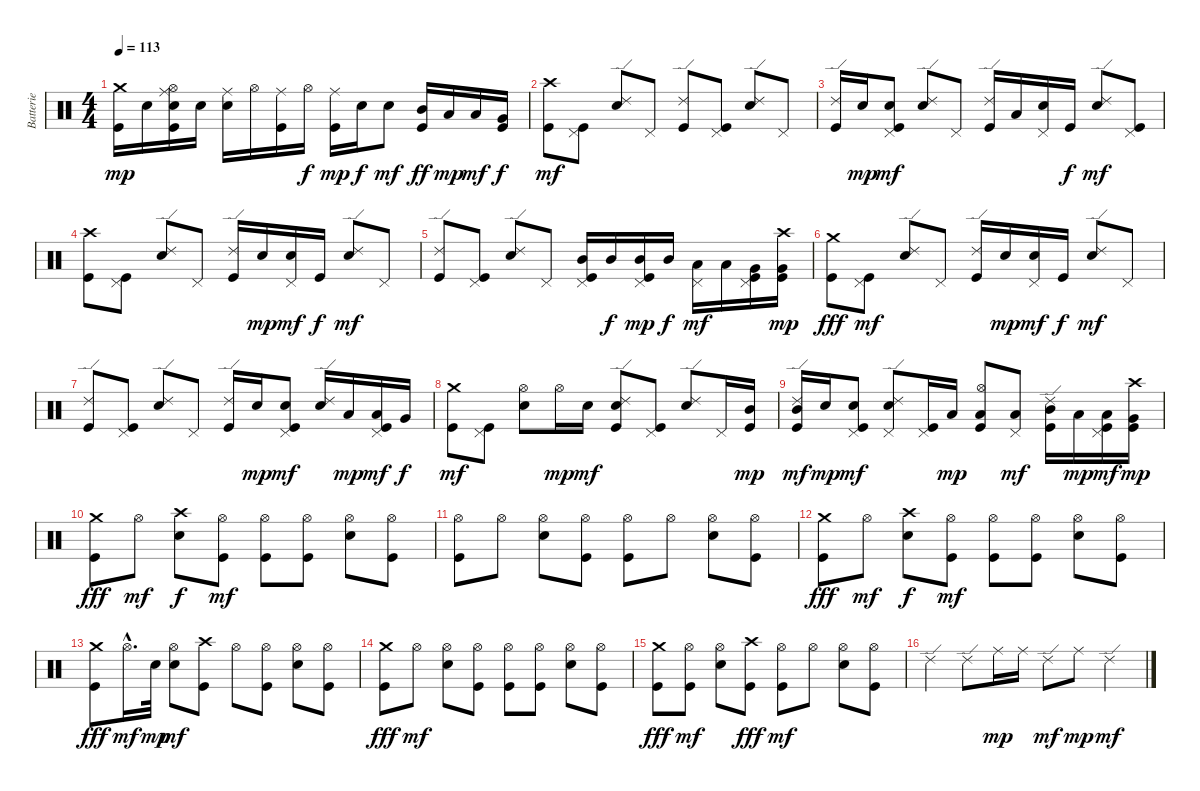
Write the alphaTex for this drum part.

\track ("Batterie" "Batterie") {instrument percussion}
\staff {score}
\articulation defaults
\ts (4 4)
\tempo 113
\clef neutral
\ks c
("Kick (hit)" "Crash medium (hit)").16{dy mp} "Electric Snare (hit)".16 ("Kick (hit)" "Electric Snare (hit)" "Hi-Hat (open)" "Ride (middle)").16 "Electric Snare (hit)".16 ("Electric Snare (hit)" "Ride (middle)").16 "Hi-Hat (open)".16 ("Kick (hit)" "Ride (middle)").16 "Hi-Hat (open)".16{dy f} ("Kick (hit)" "Ride (middle)").16{dy mp} "Electric Snare (hit)".16{dy f} "Electric Snare (hit)".8{dy mf} ("Kick (hit)" "Mid Tom (hit)").16{dy ff} "Low Tom (hit)".16{dy mp} "Low Tom (hit)".16{dy mf} ("Kick (hit)" "Very Low Tom (hit)").16{dy f} |
("Kick (hit)" "Crash high (hit)").8{dy mf} ("Kick (hit)" "Pedal Hi-Hat (hit)").8 ("Electric Snare (hit)" "Ride (edge) 2").8 "Pedal Hi-Hat (hit)".8 ("Kick (hit)" "Ride (edge) 2").8 ("Kick (hit)" "Pedal Hi-Hat (hit)").8 ("Electric Snare (hit)" "Ride (edge) 2").8 "Pedal Hi-Hat (hit)".8 |
("Kick (hit)" "Ride (edge) 2").16 "Electric Snare (hit)".16{dy mp} ("Kick (hit)" "Electric Snare (hit)" "Pedal Hi-Hat (hit)").8{dy mf} ("Electric Snare (hit)" "Ride (edge) 2").8 "Pedal Hi-Hat (hit)".8 ("Kick (hit)" "Ride (edge) 2").16 "Low Tom (hit)".16 ("Electric Snare (hit)" "Pedal Hi-Hat (hit)").16 "Kick (hit)".16{dy f} ("Electric Snare (hit)" "Ride (edge) 2").8{dy mf} ("Kick (hit)" "Pedal Hi-Hat (hit)").8 |
("Kick (hit)" "Crash high (hit)").8 ("Kick (hit)" "Pedal Hi-Hat (hit)").8 ("Electric Snare (hit)" "Ride (edge) 2").8 "Pedal Hi-Hat (hit)".8 ("Kick (hit)" "Ride (edge) 2").16 "Electric Snare (hit)".16{dy mp} ("Electric Snare (hit)" "Pedal Hi-Hat (hit)").16{dy mf} "Kick (hit)".16{dy f} ("Electric Snare (hit)" "Ride (edge) 2").8{dy mf} "Pedal Hi-Hat (hit)".8 |
("Kick (hit)" "Ride (edge) 2").8 ("Kick (hit)" "Pedal Hi-Hat (hit)").8 ("Electric Snare (hit)" "Ride (edge) 2").8 "Pedal Hi-Hat (hit)".8 ("Kick (hit)" "Pedal Hi-Hat (hit)" "Mid Tom (hit)").16 "Mid Tom (hit)".16{dy f} ("Kick (hit)" "Pedal Hi-Hat (hit)" "Mid Tom (hit)").16{dy mp} "Mid Tom (hit)".16{dy f} ("Pedal Hi-Hat (hit)" "Low Tom (hit)").16{dy mf} "Low Tom (hit)".16 ("Kick (hit)" "Pedal Hi-Hat (hit)" "Very Low Tom (hit)").16 ("Kick (hit)" "Crash high (hit)" "Very Low Tom (hit)").16{dy mp} |
("Kick (hit)" "Crash medium (hit)").8{dy fff} ("Kick (hit)" "Pedal Hi-Hat (hit)").8{dy mf} ("Electric Snare (hit)" "Ride (edge) 2").8 "Pedal Hi-Hat (hit)".8 ("Kick (hit)" "Ride (edge) 2").16 "Electric Snare (hit)".16{dy mp} ("Electric Snare (hit)" "Pedal Hi-Hat (hit)").16{dy mf} "Kick (hit)".16{dy f} ("Electric Snare (hit)" "Ride (edge) 2").8{dy mf} "Pedal Hi-Hat (hit)".8 |
("Kick (hit)" "Ride (edge) 2").8 ("Kick (hit)" "Pedal Hi-Hat (hit)").8 ("Electric Snare (hit)" "Ride (edge) 2").8 "Pedal Hi-Hat (hit)".8 ("Kick (hit)" "Ride (edge) 2").16 "Electric Snare (hit)".16{dy mp} ("Kick (hit)" "Electric Snare (hit)" "Pedal Hi-Hat (hit)").8{dy mf} ("Electric Snare (hit)" "Ride (edge) 2").16 "Low Tom (hit)".16{dy mp} ("Kick (hit)" "Pedal Hi-Hat (hit)" "Low Tom (hit)").16{dy mf} "Very Low Tom (hit)".16{dy f} |
("Kick (hit)" "Crash medium (hit)").8{dy mf} ("Kick (hit)" "Pedal Hi-Hat (hit)").8 ("Electric Snare (hit)" "Hi-Hat (open)").8 "Hi-Hat (open)".16{dy mp} "Electric Snare (hit)".16{dy mf} ("Kick (hit)" "Electric Snare (hit)" "Ride (edge) 2").8 ("Kick (hit)" "Pedal Hi-Hat (hit)").8 ("Electric Snare (hit)" "Ride (edge) 2").8 "Pedal Hi-Hat (hit)".16 ("Kick (hit)" "Mid Tom (hit)").16{dy mp} |
("Kick (hit)" "Ride (edge) 2" "Mid Tom (hit)").16{dy mf} "Electric Snare (hit)".16{dy mp} ("Kick (hit)" "Electric Snare (hit)" "Pedal Hi-Hat (hit)").8{dy mf} ("Electric Snare (hit)" "Pedal Hi-Hat (hit)" "Ride (edge) 2").8 ("Kick (hit)" "Pedal Hi-Hat (hit)").16 "Low Tom (hit)".16{dy mp} ("Kick (hit)" "Hi-Hat (open)" "Low Tom (hit)").8 ("Pedal Hi-Hat (hit)" "Low Tom (hit)").8{dy mf} ("Kick (hit)" "Ride (edge) 2" "Mid Tom (hit)").16 "Low Tom (hit)".16{dy mp} ("Kick (hit)" "Pedal Hi-Hat (hit)" "Low Tom (hit)").16{dy mf} ("Kick (hit)" "Crash high (hit)" "Very Low Tom (hit)").16{dy mp} |
("Kick (hit)" "Crash medium (hit)").8{dy fff} "Hi-Hat (open)".8{dy mf} ("Electric Snare (hit)" "Crash high (hit)").8{dy f} ("Kick (hit)" "Hi-Hat (open)").8{dy mf} ("Kick (hit)" "Hi-Hat (open)").8 ("Kick (hit)" "Hi-Hat (open)").8 ("Electric Snare (hit)" "Hi-Hat (open)").8 ("Kick (hit)" "Hi-Hat (open)").8 |
("Kick (hit)" "Hi-Hat (open)").8 "Hi-Hat (open)".8 ("Electric Snare (hit)" "Hi-Hat (open)").8 ("Kick (hit)" "Hi-Hat (open)").8 ("Kick (hit)" "Hi-Hat (open)").8 "Hi-Hat (open)".8 ("Electric Snare (hit)" "Hi-Hat (open)").8 ("Kick (hit)" "Hi-Hat (open)").8 |
("Kick (hit)" "Crash medium (hit)").8{dy fff} "Hi-Hat (open)".8{dy mf} ("Electric Snare (hit)" "Crash high (hit)").8{dy f} ("Kick (hit)" "Hi-Hat (open)").8{dy mf} ("Kick (hit)" "Hi-Hat (open)").8 ("Kick (hit)" "Hi-Hat (open)").8 ("Electric Snare (hit)" "Hi-Hat (open)").8 ("Kick (hit)" "Hi-Hat (open)").8 |
("Kick (hit)" "Crash medium (hit)").8{dy fff} "Hi-Hat (open)"{hac}.16{d dy mf} "Electric Snare (hit)".32{dy mp} ("Electric Snare (hit)" "Hi-Hat (open)").8{dy mf} ("Kick (hit)" "Crash high (hit)").8 "Hi-Hat (open)".8 ("Kick (hit)" "Hi-Hat (open)").8 ("Electric Snare (hit)" "Hi-Hat (open)").8 ("Kick (hit)" "Hi-Hat (open)").8 |
("Kick (hit)" "Crash medium (hit)").8{dy fff} "Hi-Hat (open)".8{dy mf} ("Electric Snare (hit)" "Hi-Hat (open)").8 ("Kick (hit)" "Hi-Hat (open)").8 ("Kick (hit)" "Hi-Hat (open)").8 ("Kick (hit)" "Hi-Hat (open)").8 ("Electric Snare (hit)" "Hi-Hat (open)").8 ("Kick (hit)" "Hi-Hat (open)").8 |
("Kick (hit)" "Crash medium (hit)").8{dy fff} ("Kick (hit)" "Hi-Hat (open)").8{dy mf} ("Electric Snare (hit)" "Hi-Hat (open)").8 ("Kick (hit)" "Crash high (hit)").8{dy fff} ("Kick (hit)" "Hi-Hat (open)").8{dy mf} "Hi-Hat (open)".8 ("Electric Snare (hit)" "Hi-Hat (open)").8 ("Kick (hit)" "Hi-Hat (open)").8 |
"Ride (edge) 2".4 "Ride (edge) 2".8 "Ride (middle)".16{dy mp} "Ride (middle)".16 "Ride (edge) 2".8{dy mf} "Ride (middle)".8{dy mp} "Ride (edge) 2".4{dy mf}
